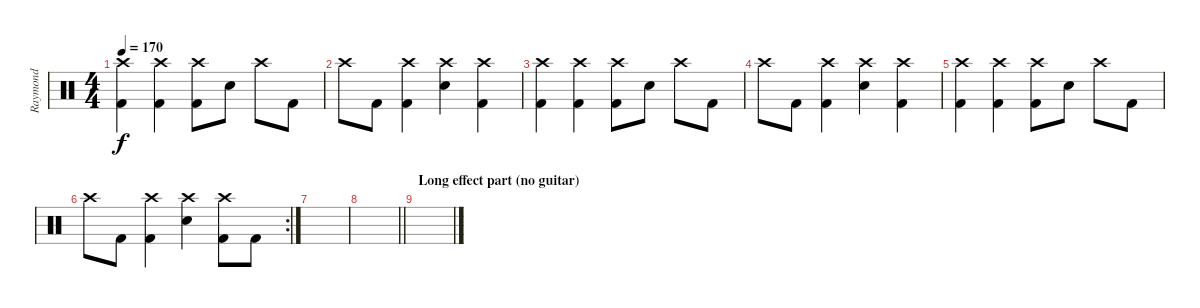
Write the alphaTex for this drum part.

\track ("Raymond" "Raymond") {instrument percussion}
\staff {score}
\articulation defaults
\ts (4 4)
\tempo 170
\clef neutral
\ks c
("Crash high (hit)" "Kick (hit) 2").4{dy f} ("Crash high (hit)" "Kick (hit) 2").4 ("Crash high (hit)" "Kick (hit) 2").8 "Electric Snare (hit)".8 "Crash high (hit)".8 "Kick (hit) 2".8 |
"Crash high (hit)".8 "Kick (hit) 2".8 ("Crash high (hit)" "Kick (hit) 2").4 ("Crash high (hit)" "Electric Snare (hit)").4 ("Crash high (hit)" "Kick (hit) 2").4 |
("Crash high (hit)" "Kick (hit) 2").4 ("Crash high (hit)" "Kick (hit) 2").4 ("Crash high (hit)" "Kick (hit) 2").8 "Electric Snare (hit)".8 "Crash high (hit)".8 "Kick (hit) 2".8 |
"Crash high (hit)".8 "Kick (hit) 2".8 ("Crash high (hit)" "Kick (hit) 2").4 ("Crash high (hit)" "Electric Snare (hit)").4 ("Crash high (hit)" "Kick (hit) 2").4 |
("Crash high (hit)" "Kick (hit) 2").4 ("Crash high (hit)" "Kick (hit) 2").4 ("Crash high (hit)" "Kick (hit) 2").8 "Electric Snare (hit)".8 "Crash high (hit)".8 "Kick (hit) 2".8 |
\rc 2 "Crash high (hit)".8 "Kick (hit) 2".8
("Crash high (hit)" "Kick (hit) 2").4 ("Crash high (hit)" "Electric Snare (hit)").4 ("Crash high (hit)" "Kick (hit) 2").8 "Kick (hit) 2".8 |
|
\barLineRight lightlight
|
\section ("" "Long effect part (no guitar)")
